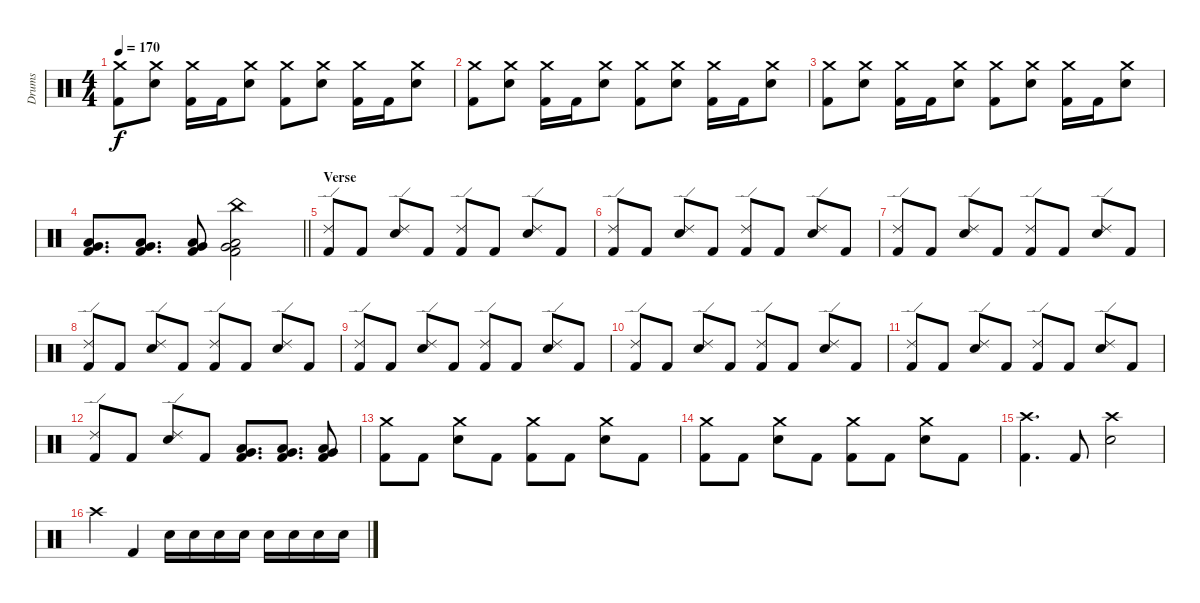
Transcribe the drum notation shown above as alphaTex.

\track ("Drums" "Drums") {instrument percussion}
\staff {score}
\articulation defaults
\ts (4 4)
\tempo 170
\clef neutral
\ks c
("Crash medium (hit)" "Kick (hit) 2").8{dy f} ("Crash medium (hit)" "Electric Snare (hit)").8 ("Crash medium (hit)" "Kick (hit) 2").16 "Kick (hit) 2".16 ("Crash medium (hit)" "Electric Snare (hit)").8 ("Crash medium (hit)" "Kick (hit) 2").8 ("Crash medium (hit)" "Electric Snare (hit)").8 ("Crash medium (hit)" "Kick (hit) 2").16 "Kick (hit) 2".16 ("Crash medium (hit)" "Electric Snare (hit)").8 |
("Crash medium (hit)" "Kick (hit) 2").8 ("Crash medium (hit)" "Electric Snare (hit)").8 ("Crash medium (hit)" "Kick (hit) 2").16 "Kick (hit) 2".16 ("Crash medium (hit)" "Electric Snare (hit)").8 ("Crash medium (hit)" "Kick (hit) 2").8 ("Crash medium (hit)" "Electric Snare (hit)").8 ("Crash medium (hit)" "Kick (hit) 2").16 "Kick (hit) 2".16 ("Crash medium (hit)" "Electric Snare (hit)").8 |
("Crash medium (hit)" "Kick (hit) 2").8 ("Crash medium (hit)" "Electric Snare (hit)").8 ("Crash medium (hit)" "Kick (hit) 2").16 "Kick (hit) 2".16 ("Crash medium (hit)" "Electric Snare (hit)").8 ("Crash medium (hit)" "Kick (hit) 2").8 ("Crash medium (hit)" "Electric Snare (hit)").8 ("Crash medium (hit)" "Kick (hit) 2").16 "Kick (hit) 2".16 ("Crash medium (hit)" "Electric Snare (hit)").8 |
\barLineRight lightlight
("Very Low Tom (hit)" "Low Floor Tom (hit)" "Kick (hit) 2").8{d} ("Very Low Tom (hit)" "Low Floor Tom (hit)" "Kick (hit) 2").8{d} ("Very Low Tom (hit)" "Low Floor Tom (hit)" "Kick (hit) 2").8 ("China (hit)" "Very Low Tom (hit)" "Low Floor Tom (hit)" "Kick (hit) 2").2 |
\section ("" "Verse")
("Ride (edge) 2" "Kick (hit) 2").8 "Kick (hit) 2".8 ("Ride (edge) 2" "Electric Snare (hit)").8 "Kick (hit) 2".8 ("Ride (edge) 2" "Kick (hit) 2").8 "Kick (hit) 2".8 ("Ride (edge) 2" "Electric Snare (hit)").8 "Kick (hit) 2".8 |
("Ride (edge) 2" "Kick (hit) 2").8 "Kick (hit) 2".8 ("Ride (edge) 2" "Electric Snare (hit)").8 "Kick (hit) 2".8 ("Ride (edge) 2" "Kick (hit) 2").8 "Kick (hit) 2".8 ("Ride (edge) 2" "Electric Snare (hit)").8 "Kick (hit) 2".8 |
("Ride (edge) 2" "Kick (hit) 2").8 "Kick (hit) 2".8 ("Ride (edge) 2" "Electric Snare (hit)").8 "Kick (hit) 2".8 ("Ride (edge) 2" "Kick (hit) 2").8 "Kick (hit) 2".8 ("Ride (edge) 2" "Electric Snare (hit)").8 "Kick (hit) 2".8 |
("Ride (edge) 2" "Kick (hit) 2").8 "Kick (hit) 2".8 ("Ride (edge) 2" "Electric Snare (hit)").8 "Kick (hit) 2".8 ("Ride (edge) 2" "Kick (hit) 2").8 "Kick (hit) 2".8 ("Ride (edge) 2" "Electric Snare (hit)").8 "Kick (hit) 2".8 |
("Ride (edge) 2" "Kick (hit) 2").8 "Kick (hit) 2".8 ("Ride (edge) 2" "Electric Snare (hit)").8 "Kick (hit) 2".8 ("Ride (edge) 2" "Kick (hit) 2").8 "Kick (hit) 2".8 ("Ride (edge) 2" "Electric Snare (hit)").8 "Kick (hit) 2".8 |
("Ride (edge) 2" "Kick (hit) 2").8 "Kick (hit) 2".8 ("Ride (edge) 2" "Electric Snare (hit)").8 "Kick (hit) 2".8 ("Ride (edge) 2" "Kick (hit) 2").8 "Kick (hit) 2".8 ("Ride (edge) 2" "Electric Snare (hit)").8 "Kick (hit) 2".8 |
("Ride (edge) 2" "Kick (hit) 2").8 "Kick (hit) 2".8 ("Ride (edge) 2" "Electric Snare (hit)").8 "Kick (hit) 2".8 ("Ride (edge) 2" "Kick (hit) 2").8 "Kick (hit) 2".8 ("Ride (edge) 2" "Electric Snare (hit)").8 "Kick (hit) 2".8 |
("Ride (edge) 2" "Kick (hit) 2").8 "Kick (hit) 2".8 ("Ride (edge) 2" "Electric Snare (hit)").8 "Kick (hit) 2".8 ("Low Floor Tom (hit)" "Very Low Tom (hit)" "Kick (hit) 2").8{d} ("Low Floor Tom (hit)" "Very Low Tom (hit)" "Kick (hit) 2").8{d} ("Low Floor Tom (hit)" "Very Low Tom (hit)" "Kick (hit) 2").8 |
("Crash medium (hit)" "Kick (hit) 2").8 "Kick (hit) 2".8 ("Crash medium (hit)" "Electric Snare (hit)").8 "Kick (hit) 2".8 ("Crash medium (hit)" "Kick (hit) 2").8 "Kick (hit) 2".8 ("Crash medium (hit)" "Electric Snare (hit)").8 "Kick (hit) 2".8 |
("Crash medium (hit)" "Kick (hit) 2").8 "Kick (hit) 2".8 ("Crash medium (hit)" "Electric Snare (hit)").8 "Kick (hit) 2".8 ("Crash medium (hit)" "Kick (hit) 2").8 "Kick (hit) 2".8 ("Crash medium (hit)" "Electric Snare (hit)").8 "Kick (hit) 2".8 |
("Crash high (hit)" "Kick (hit) 2").4{d} "Kick (hit) 2".8 ("Crash high (hit)" "Electric Snare (hit)").2 |
"Crash high (hit)".4 "Kick (hit) 2".4 "Electric Snare (hit)".16 "Electric Snare (hit)".16 "Electric Snare (hit)".16 "Electric Snare (hit)".16 "Electric Snare (hit)".16 "Electric Snare (hit)".16 "Electric Snare (hit)".16 "Electric Snare (hit)".16
